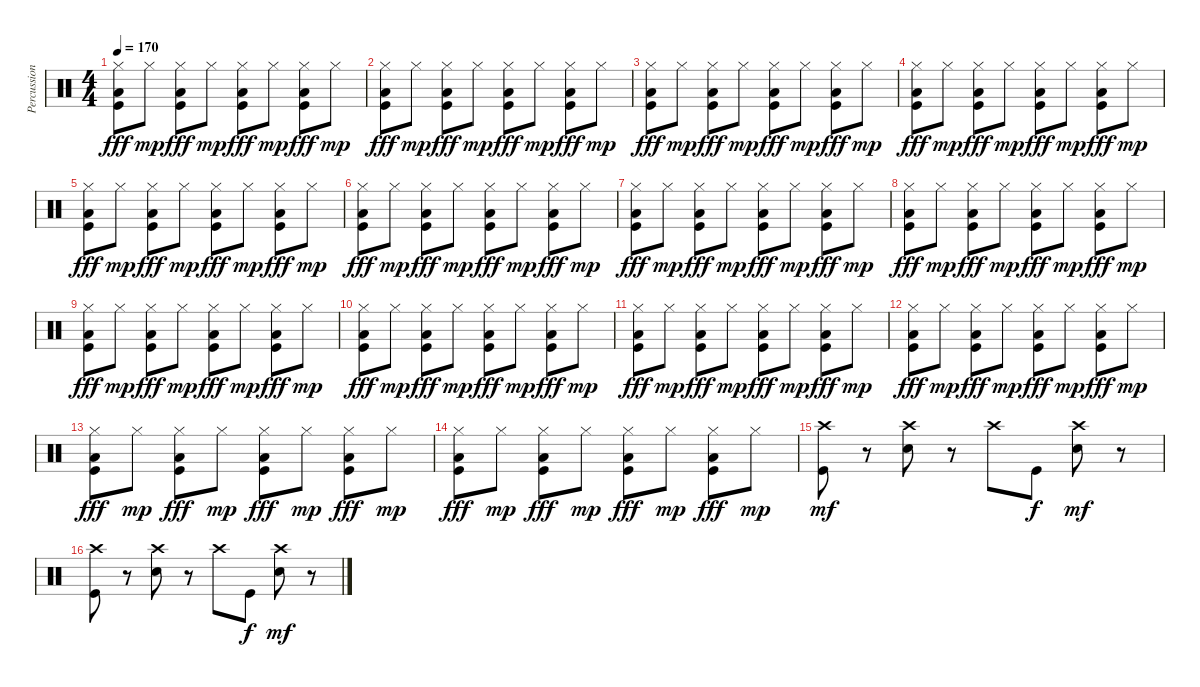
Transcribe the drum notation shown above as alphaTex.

\track ("Percussion" "Percussion") {instrument percussion}
\staff {score}
\articulation defaults
\ts (4 4)
\tempo 170
\clef neutral
\ks c
("Low Floor Tom (hit)" "Hi-Hat (closed)" "Kick (hit)").8{dy fff} "Hi-Hat (closed)".8{dy mp} ("Low Floor Tom (hit)" "Hi-Hat (closed)" "Kick (hit)").8{dy fff} "Hi-Hat (closed)".8{dy mp} ("Low Floor Tom (hit)" "Hi-Hat (closed)" "Kick (hit)").8{dy fff} "Hi-Hat (closed)".8{dy mp} ("Low Floor Tom (hit)" "Hi-Hat (closed)" "Kick (hit)").8{dy fff} "Hi-Hat (closed)".8{dy mp} |
("Low Floor Tom (hit)" "Hi-Hat (closed)" "Kick (hit)").8{dy fff} "Hi-Hat (closed)".8{dy mp} ("Low Floor Tom (hit)" "Hi-Hat (closed)" "Kick (hit)").8{dy fff} "Hi-Hat (closed)".8{dy mp} ("Low Floor Tom (hit)" "Hi-Hat (closed)" "Kick (hit)").8{dy fff} "Hi-Hat (closed)".8{dy mp} ("Low Floor Tom (hit)" "Hi-Hat (closed)" "Kick (hit)").8{dy fff} "Hi-Hat (closed)".8{dy mp} |
("Low Floor Tom (hit)" "Hi-Hat (closed)" "Kick (hit)").8{dy fff} "Hi-Hat (closed)".8{dy mp} ("Low Floor Tom (hit)" "Hi-Hat (closed)" "Kick (hit)").8{dy fff} "Hi-Hat (closed)".8{dy mp} ("Low Floor Tom (hit)" "Hi-Hat (closed)" "Kick (hit)").8{dy fff} "Hi-Hat (closed)".8{dy mp} ("Low Floor Tom (hit)" "Hi-Hat (closed)" "Kick (hit)").8{dy fff} "Hi-Hat (closed)".8{dy mp} |
("Low Floor Tom (hit)" "Hi-Hat (closed)" "Kick (hit)").8{dy fff} "Hi-Hat (closed)".8{dy mp} ("Low Floor Tom (hit)" "Hi-Hat (closed)" "Kick (hit)").8{dy fff} "Hi-Hat (closed)".8{dy mp} ("Low Floor Tom (hit)" "Hi-Hat (closed)" "Kick (hit)").8{dy fff} "Hi-Hat (closed)".8{dy mp} ("Low Floor Tom (hit)" "Hi-Hat (closed)" "Kick (hit)").8{dy fff} "Hi-Hat (closed)".8{dy mp} |
("Low Floor Tom (hit)" "Hi-Hat (closed)" "Kick (hit)").8{dy fff} "Hi-Hat (closed)".8{dy mp} ("Low Floor Tom (hit)" "Hi-Hat (closed)" "Kick (hit)").8{dy fff} "Hi-Hat (closed)".8{dy mp} ("Low Floor Tom (hit)" "Hi-Hat (closed)" "Kick (hit)").8{dy fff} "Hi-Hat (closed)".8{dy mp} ("Low Floor Tom (hit)" "Hi-Hat (closed)" "Kick (hit)").8{dy fff} "Hi-Hat (closed)".8{dy mp} |
("Low Floor Tom (hit)" "Hi-Hat (closed)" "Kick (hit)").8{dy fff} "Hi-Hat (closed)".8{dy mp} ("Low Floor Tom (hit)" "Hi-Hat (closed)" "Kick (hit)").8{dy fff} "Hi-Hat (closed)".8{dy mp} ("Low Floor Tom (hit)" "Hi-Hat (closed)" "Kick (hit)").8{dy fff} "Hi-Hat (closed)".8{dy mp} ("Low Floor Tom (hit)" "Hi-Hat (closed)" "Kick (hit)").8{dy fff} "Hi-Hat (closed)".8{dy mp} |
("Low Floor Tom (hit)" "Hi-Hat (closed)" "Kick (hit)").8{dy fff} "Hi-Hat (closed)".8{dy mp} ("Low Floor Tom (hit)" "Hi-Hat (closed)" "Kick (hit)").8{dy fff} "Hi-Hat (closed)".8{dy mp} ("Low Floor Tom (hit)" "Hi-Hat (closed)" "Kick (hit)").8{dy fff} "Hi-Hat (closed)".8{dy mp} ("Low Floor Tom (hit)" "Hi-Hat (closed)" "Kick (hit)").8{dy fff} "Hi-Hat (closed)".8{dy mp} |
("Low Floor Tom (hit)" "Hi-Hat (closed)" "Kick (hit)").8{dy fff} "Hi-Hat (closed)".8{dy mp} ("Low Floor Tom (hit)" "Hi-Hat (closed)" "Kick (hit)").8{dy fff} "Hi-Hat (closed)".8{dy mp} ("Low Floor Tom (hit)" "Hi-Hat (closed)" "Kick (hit)").8{dy fff} "Hi-Hat (closed)".8{dy mp} ("Low Floor Tom (hit)" "Hi-Hat (closed)" "Kick (hit)").8{dy fff} "Hi-Hat (closed)".8{dy mp} |
("Low Floor Tom (hit)" "Hi-Hat (closed)" "Kick (hit)").8{dy fff} "Hi-Hat (closed)".8{dy mp} ("Low Floor Tom (hit)" "Hi-Hat (closed)" "Kick (hit)").8{dy fff} "Hi-Hat (closed)".8{dy mp} ("Low Floor Tom (hit)" "Hi-Hat (closed)" "Kick (hit)").8{dy fff} "Hi-Hat (closed)".8{dy mp} ("Low Floor Tom (hit)" "Hi-Hat (closed)" "Kick (hit)").8{dy fff} "Hi-Hat (closed)".8{dy mp} |
("Low Floor Tom (hit)" "Hi-Hat (closed)" "Kick (hit)").8{dy fff} "Hi-Hat (closed)".8{dy mp} ("Low Floor Tom (hit)" "Hi-Hat (closed)" "Kick (hit)").8{dy fff} "Hi-Hat (closed)".8{dy mp} ("Low Floor Tom (hit)" "Hi-Hat (closed)" "Kick (hit)").8{dy fff} "Hi-Hat (closed)".8{dy mp} ("Low Floor Tom (hit)" "Hi-Hat (closed)" "Kick (hit)").8{dy fff} "Hi-Hat (closed)".8{dy mp} |
("Low Floor Tom (hit)" "Hi-Hat (closed)" "Kick (hit)").8{dy fff} "Hi-Hat (closed)".8{dy mp} ("Low Floor Tom (hit)" "Hi-Hat (closed)" "Kick (hit)").8{dy fff} "Hi-Hat (closed)".8{dy mp} ("Low Floor Tom (hit)" "Hi-Hat (closed)" "Kick (hit)").8{dy fff} "Hi-Hat (closed)".8{dy mp} ("Low Floor Tom (hit)" "Hi-Hat (closed)" "Kick (hit)").8{dy fff} "Hi-Hat (closed)".8{dy mp} |
("Low Floor Tom (hit)" "Hi-Hat (closed)" "Kick (hit)").8{dy fff} "Hi-Hat (closed)".8{dy mp} ("Low Floor Tom (hit)" "Hi-Hat (closed)" "Kick (hit)").8{dy fff} "Hi-Hat (closed)".8{dy mp} ("Low Floor Tom (hit)" "Hi-Hat (closed)" "Kick (hit)").8{dy fff} "Hi-Hat (closed)".8{dy mp} ("Low Floor Tom (hit)" "Hi-Hat (closed)" "Kick (hit)").8{dy fff} "Hi-Hat (closed)".8{dy mp} |
("Low Floor Tom (hit)" "Hi-Hat (closed)" "Kick (hit)").8{dy fff} "Hi-Hat (closed)".8{dy mp} ("Low Floor Tom (hit)" "Hi-Hat (closed)" "Kick (hit)").8{dy fff} "Hi-Hat (closed)".8{dy mp} ("Low Floor Tom (hit)" "Hi-Hat (closed)" "Kick (hit)").8{dy fff} "Hi-Hat (closed)".8{dy mp} ("Low Floor Tom (hit)" "Hi-Hat (closed)" "Kick (hit)").8{dy fff} "Hi-Hat (closed)".8{dy mp} |
("Low Floor Tom (hit)" "Hi-Hat (closed)" "Kick (hit)").8{dy fff} "Hi-Hat (closed)".8{dy mp} ("Low Floor Tom (hit)" "Hi-Hat (closed)" "Kick (hit)").8{dy fff} "Hi-Hat (closed)".8{dy mp} ("Low Floor Tom (hit)" "Hi-Hat (closed)" "Kick (hit)").8{dy fff} "Hi-Hat (closed)".8{dy mp} ("Low Floor Tom (hit)" "Hi-Hat (closed)" "Kick (hit)").8{dy fff} "Hi-Hat (closed)".8{dy mp} |
("Kick (hit)" "Crash high (hit)").8{dy mf} r.8 ("Snare (hit) 2" "Crash high (hit)").8 r.8 "Crash high (hit)".8 "Kick (hit)".8{dy f} ("Snare (hit) 2" "Crash high (hit)").8{dy mf} r.8 |
("Kick (hit)" "Crash high (hit)").8 r.8 ("Snare (hit) 2" "Crash high (hit)").8 r.8 "Crash high (hit)".8 "Kick (hit)".8{dy f} ("Snare (hit) 2" "Crash high (hit)").8{dy mf} r.8
